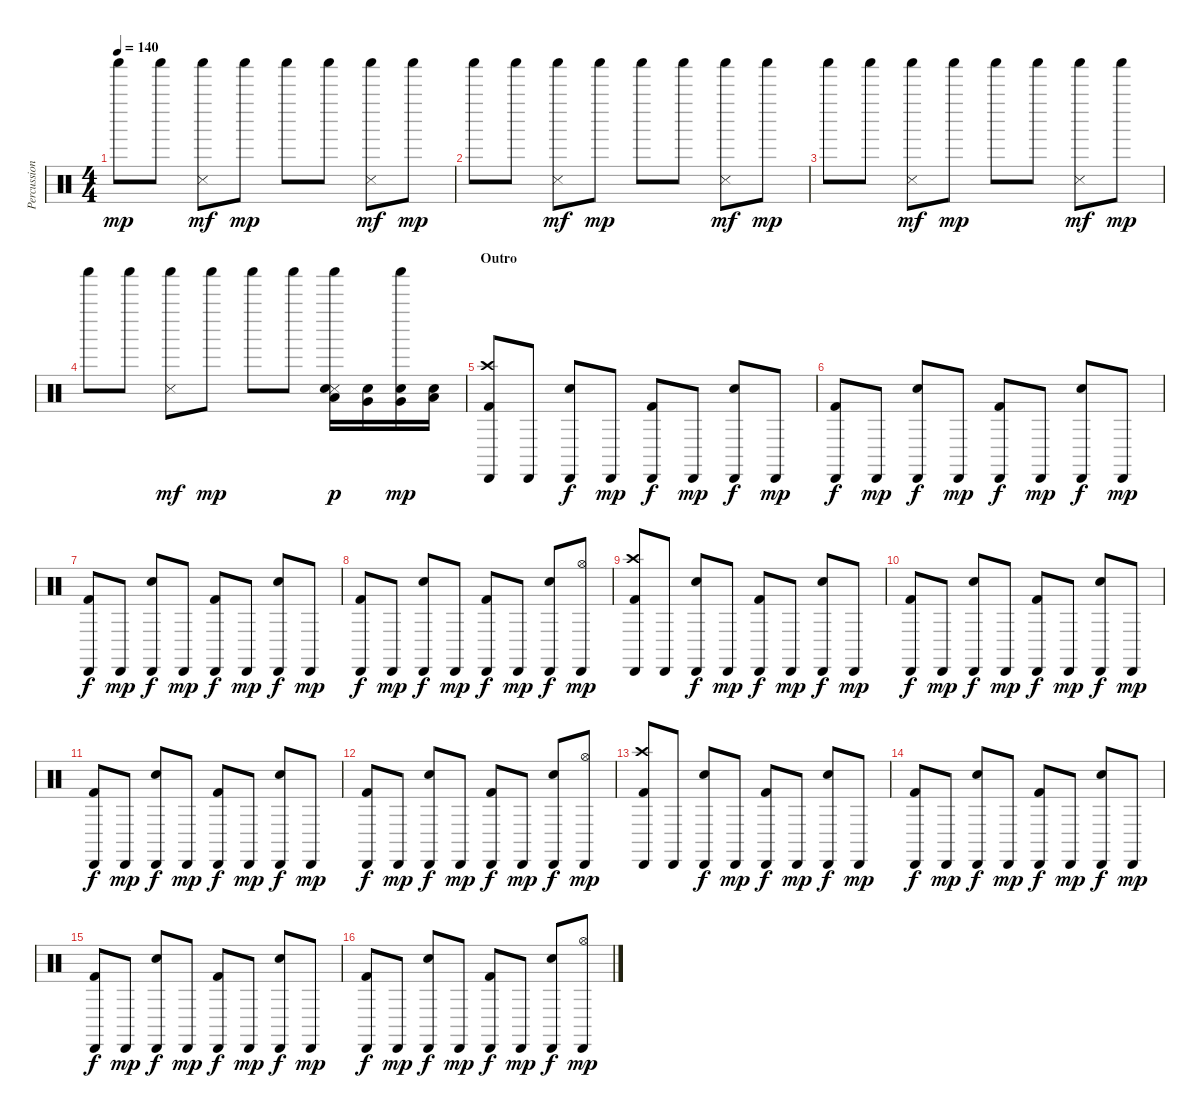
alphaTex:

\track ("Percussion" "Percussion") {instrument percussion}
\staff {score}
\articulation defaults
\ts (4 4)
\tempo 140
\clef neutral
\ks c "Shaker (hit)".8{dy mp} "Shaker (hit)".8
("Shaker (hit)" "Snare (side stick) 3").8{dy mf} "Shaker (hit)".8{dy mp} "Shaker (hit)".8 "Shaker (hit)".8 ("Shaker (hit)" "Snare (side stick) 3").8{dy mf} "Shaker (hit)".8{dy mp} |
"Shaker (hit)".8 "Shaker (hit)".8 ("Shaker (hit)" "Snare (side stick) 3").8{dy mf} "Shaker (hit)".8{dy mp} "Shaker (hit)".8 "Shaker (hit)".8 ("Shaker (hit)" "Snare (side stick) 3").8{dy mf} "Shaker (hit)".8{dy mp} |
"Shaker (hit)".8 "Shaker (hit)".8 ("Shaker (hit)" "Snare (side stick) 3").8{dy mf} "Shaker (hit)".8{dy mp} "Shaker (hit)".8 "Shaker (hit)".8 ("Shaker (hit)" "Snare (side stick) 3").8{dy mf} "Shaker (hit)".8{dy mp} |
"Shaker (hit)".8 "Shaker (hit)".8 ("Shaker (hit)" "Snare (side stick) 3").8{dy mf} "Shaker (hit)".8{dy mp} "Shaker (hit)".8 "Shaker (hit)".8 ("Shaker (hit)" "Snare (side stick) 3" "Electric Snare (hit)" "Low Tom (hit)").16{dy p} ("Electric Snare (hit)" "Very Low Tom (hit)").16 ("Shaker (hit)" "Electric Snare (hit)" "Very Low Tom (hit)").16{dy mp} ("Electric Snare (hit)" "Low Floor Tom (hit)").16 |
\section ("" "Outro")
("Cabasa (hit)" "Crash high (hit)" "Kick (hit) 2").8 "Cabasa (hit)".8 ("Cabasa (hit)" "Electric Snare (hit)").8{dy f} "Cabasa (hit)".8{dy mp} ("Cabasa (hit)" "Kick (hit) 2").8{dy f} "Cabasa (hit)".8{dy mp} ("Cabasa (hit)" "Electric Snare (hit)").8{dy f} "Cabasa (hit)".8{dy mp} |
("Cabasa (hit)" "Kick (hit) 2").8{dy f} "Cabasa (hit)".8{dy mp} ("Cabasa (hit)" "Electric Snare (hit)").8{dy f} "Cabasa (hit)".8{dy mp} ("Cabasa (hit)" "Kick (hit) 2").8{dy f} "Cabasa (hit)".8{dy mp} ("Cabasa (hit)" "Electric Snare (hit)").8{dy f} "Cabasa (hit)".8{dy mp} |
("Cabasa (hit)" "Kick (hit) 2").8{dy f} "Cabasa (hit)".8{dy mp} ("Cabasa (hit)" "Electric Snare (hit)").8{dy f} "Cabasa (hit)".8{dy mp} ("Cabasa (hit)" "Kick (hit) 2").8{dy f} "Cabasa (hit)".8{dy mp} ("Cabasa (hit)" "Electric Snare (hit)").8{dy f} "Cabasa (hit)".8{dy mp} |
("Cabasa (hit)" "Kick (hit) 2").8{dy f} "Cabasa (hit)".8{dy mp} ("Cabasa (hit)" "Electric Snare (hit)").8{dy f} "Cabasa (hit)".8{dy mp} ("Cabasa (hit)" "Kick (hit) 2").8{dy f} "Cabasa (hit)".8{dy mp} ("Cabasa (hit)" "Electric Snare (hit)").8{dy f} ("Cabasa (hit)" "Hi-Hat (open)").8{dy mp} |
("Cabasa (hit)" "Crash high (hit)" "Kick (hit) 2").8 "Cabasa (hit)".8 ("Cabasa (hit)" "Electric Snare (hit)").8{dy f} "Cabasa (hit)".8{dy mp} ("Cabasa (hit)" "Kick (hit) 2").8{dy f} "Cabasa (hit)".8{dy mp} ("Cabasa (hit)" "Electric Snare (hit)").8{dy f} "Cabasa (hit)".8{dy mp} |
("Cabasa (hit)" "Kick (hit) 2").8{dy f} "Cabasa (hit)".8{dy mp} ("Cabasa (hit)" "Electric Snare (hit)").8{dy f} "Cabasa (hit)".8{dy mp} ("Cabasa (hit)" "Kick (hit) 2").8{dy f} "Cabasa (hit)".8{dy mp} ("Cabasa (hit)" "Electric Snare (hit)").8{dy f} "Cabasa (hit)".8{dy mp} |
("Cabasa (hit)" "Kick (hit) 2").8{dy f} "Cabasa (hit)".8{dy mp} ("Cabasa (hit)" "Electric Snare (hit)").8{dy f} "Cabasa (hit)".8{dy mp} ("Cabasa (hit)" "Kick (hit) 2").8{dy f} "Cabasa (hit)".8{dy mp} ("Cabasa (hit)" "Electric Snare (hit)").8{dy f} "Cabasa (hit)".8{dy mp} |
("Cabasa (hit)" "Kick (hit) 2").8{dy f} "Cabasa (hit)".8{dy mp} ("Cabasa (hit)" "Electric Snare (hit)").8{dy f} "Cabasa (hit)".8{dy mp} ("Cabasa (hit)" "Kick (hit) 2").8{dy f} "Cabasa (hit)".8{dy mp} ("Cabasa (hit)" "Electric Snare (hit)").8{dy f} ("Cabasa (hit)" "Hi-Hat (open)").8{dy mp} |
("Cabasa (hit)" "Crash high (hit)" "Kick (hit) 2").8 "Cabasa (hit)".8 ("Cabasa (hit)" "Electric Snare (hit)").8{dy f} "Cabasa (hit)".8{dy mp} ("Cabasa (hit)" "Kick (hit) 2").8{dy f} "Cabasa (hit)".8{dy mp} ("Cabasa (hit)" "Electric Snare (hit)").8{dy f} "Cabasa (hit)".8{dy mp} |
("Cabasa (hit)" "Kick (hit) 2").8{dy f} "Cabasa (hit)".8{dy mp} ("Cabasa (hit)" "Electric Snare (hit)").8{dy f} "Cabasa (hit)".8{dy mp} ("Cabasa (hit)" "Kick (hit) 2").8{dy f} "Cabasa (hit)".8{dy mp} ("Cabasa (hit)" "Electric Snare (hit)").8{dy f} "Cabasa (hit)".8{dy mp} |
("Cabasa (hit)" "Kick (hit) 2").8{dy f} "Cabasa (hit)".8{dy mp} ("Cabasa (hit)" "Electric Snare (hit)").8{dy f} "Cabasa (hit)".8{dy mp} ("Cabasa (hit)" "Kick (hit) 2").8{dy f} "Cabasa (hit)".8{dy mp} ("Cabasa (hit)" "Electric Snare (hit)").8{dy f} "Cabasa (hit)".8{dy mp} |
("Cabasa (hit)" "Kick (hit) 2").8{dy f} "Cabasa (hit)".8{dy mp} ("Cabasa (hit)" "Electric Snare (hit)").8{dy f} "Cabasa (hit)".8{dy mp} ("Cabasa (hit)" "Kick (hit) 2").8{dy f} "Cabasa (hit)".8{dy mp} ("Cabasa (hit)" "Electric Snare (hit)").8{dy f} ("Cabasa (hit)" "Hi-Hat (open)").8{dy mp}
